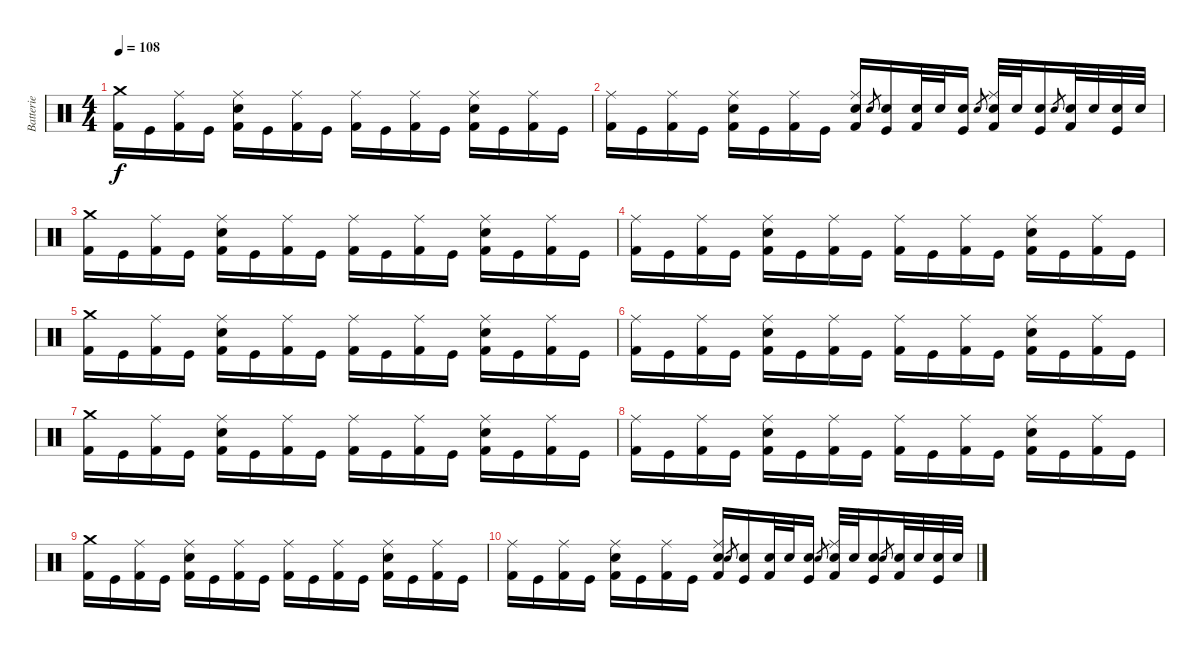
\track ("Batterie" "Batterie") {instrument percussion}
\staff {score}
\articulation defaults
\ts (4 4)
\tempo 108
\clef neutral
\ks c
("Crash medium (hit)" "Kick (hit) 2").16{dy f} "Kick (hit)".16 ("Ride (middle)" "Kick (hit) 2").16 "Kick (hit)".16 ("Ride (middle)" "Snare (hit) 2" "Kick (hit) 2").16 "Kick (hit)".16 ("Ride (middle)" "Kick (hit) 2").16 "Kick (hit)".16 ("Ride (middle)" "Kick (hit) 2").16 "Kick (hit)".16 ("Ride (middle)" "Kick (hit) 2").16 "Kick (hit)".16 ("Ride (middle)" "Snare (hit) 2" "Kick (hit) 2").16 "Kick (hit)".16 ("Ride (middle)" "Kick (hit) 2").16 "Kick (hit)".16 |
("Ride (middle)" "Kick (hit) 2").16 "Kick (hit)".16 ("Ride (middle)" "Kick (hit) 2").16 "Kick (hit)".16 ("Ride (middle)" "Snare (hit) 2" "Kick (hit) 2").16 "Kick (hit)".16 ("Ride (middle)" "Kick (hit) 2").16 "Kick (hit)".16 ("Ride (middle)" "Snare (hit) 2" "Kick (hit) 2").16 "Snare (hit) 2".8{gr} ("Snare (hit) 2" "Kick (hit)").16 ("Snare (hit) 2" "Kick (hit) 2").32 "Snare (hit) 2".32 ("Snare (hit) 2" "Kick (hit)").16 "Snare (hit) 2".8{gr} ("Ride (middle)" "Snare (hit) 2" "Kick (hit) 2").32 "Snare (hit) 2".32 ("Snare (hit) 2" "Kick (hit)").16 "Snare (hit) 2".8{gr} ("Snare (hit) 2" "Kick (hit) 2").32 "Snare (hit) 2".32 ("Snare (hit) 2" "Kick (hit)").32 "Snare (hit) 2".32 |
("Crash medium (hit)" "Kick (hit) 2").16 "Kick (hit)".16 ("Ride (middle)" "Kick (hit) 2").16 "Kick (hit)".16 ("Ride (middle)" "Snare (hit) 2" "Kick (hit) 2").16 "Kick (hit)".16 ("Ride (middle)" "Kick (hit) 2").16 "Kick (hit)".16 ("Ride (middle)" "Kick (hit) 2").16 "Kick (hit)".16 ("Ride (middle)" "Kick (hit) 2").16 "Kick (hit)".16 ("Ride (middle)" "Snare (hit) 2" "Kick (hit) 2").16 "Kick (hit)".16 ("Ride (middle)" "Kick (hit) 2").16 "Kick (hit)".16 |
("Ride (middle)" "Kick (hit) 2").16 "Kick (hit)".16 ("Ride (middle)" "Kick (hit) 2").16 "Kick (hit)".16 ("Ride (middle)" "Snare (hit) 2" "Kick (hit) 2").16 "Kick (hit)".16 ("Ride (middle)" "Kick (hit) 2").16 "Kick (hit)".16 ("Ride (middle)" "Kick (hit) 2").16 "Kick (hit)".16 ("Ride (middle)" "Kick (hit) 2").16 "Kick (hit)".16 ("Ride (middle)" "Snare (hit) 2" "Kick (hit) 2").16 "Kick (hit)".16 ("Ride (middle)" "Kick (hit) 2").16 "Kick (hit)".16 |
("Crash medium (hit)" "Kick (hit) 2").16 "Kick (hit)".16 ("Ride (middle)" "Kick (hit) 2").16 "Kick (hit)".16 ("Ride (middle)" "Snare (hit) 2" "Kick (hit) 2").16 "Kick (hit)".16 ("Ride (middle)" "Kick (hit) 2").16 "Kick (hit)".16 ("Ride (middle)" "Kick (hit) 2").16 "Kick (hit)".16 ("Ride (middle)" "Kick (hit) 2").16 "Kick (hit)".16 ("Ride (middle)" "Snare (hit) 2" "Kick (hit) 2").16 "Kick (hit)".16 ("Ride (middle)" "Kick (hit) 2").16 "Kick (hit)".16 |
("Ride (middle)" "Kick (hit) 2").16 "Kick (hit)".16 ("Ride (middle)" "Kick (hit) 2").16 "Kick (hit)".16 ("Ride (middle)" "Snare (hit) 2" "Kick (hit) 2").16 "Kick (hit)".16 ("Ride (middle)" "Kick (hit) 2").16 "Kick (hit)".16 ("Ride (middle)" "Kick (hit) 2").16 "Kick (hit)".16 ("Ride (middle)" "Kick (hit) 2").16 "Kick (hit)".16 ("Ride (middle)" "Snare (hit) 2" "Kick (hit) 2").16 "Kick (hit)".16 ("Ride (middle)" "Kick (hit) 2").16 "Kick (hit)".16 |
("Crash medium (hit)" "Kick (hit) 2").16{volume 0} "Kick (hit)".16 ("Ride (middle)" "Kick (hit) 2").16 "Kick (hit)".16 ("Ride (middle)" "Snare (hit) 2" "Kick (hit) 2").16 "Kick (hit)".16 ("Ride (middle)" "Kick (hit) 2").16 "Kick (hit)".16 ("Ride (middle)" "Kick (hit) 2").16 "Kick (hit)".16 ("Ride (middle)" "Kick (hit) 2").16 "Kick (hit)".16 ("Ride (middle)" "Snare (hit) 2" "Kick (hit) 2").16 "Kick (hit)".16 ("Ride (middle)" "Kick (hit) 2").16 "Kick (hit)".16 |
("Ride (middle)" "Kick (hit) 2").16 "Kick (hit)".16 ("Ride (middle)" "Kick (hit) 2").16 "Kick (hit)".16 ("Ride (middle)" "Snare (hit) 2" "Kick (hit) 2").16 "Kick (hit)".16 ("Ride (middle)" "Kick (hit) 2").16 "Kick (hit)".16 ("Ride (middle)" "Kick (hit) 2").16 "Kick (hit)".16 ("Ride (middle)" "Kick (hit) 2").16 "Kick (hit)".16 ("Ride (middle)" "Snare (hit) 2" "Kick (hit) 2").16 "Kick (hit)".16 ("Ride (middle)" "Kick (hit) 2").16 "Kick (hit)".16 |
("Crash medium (hit)" "Kick (hit) 2").16 "Kick (hit)".16 ("Ride (middle)" "Kick (hit) 2").16 "Kick (hit)".16 ("Ride (middle)" "Snare (hit) 2" "Kick (hit) 2").16 "Kick (hit)".16 ("Ride (middle)" "Kick (hit) 2").16 "Kick (hit)".16 ("Ride (middle)" "Kick (hit) 2").16 "Kick (hit)".16 ("Ride (middle)" "Kick (hit) 2").16 "Kick (hit)".16 ("Ride (middle)" "Snare (hit) 2" "Kick (hit) 2").16 "Kick (hit)".16 ("Ride (middle)" "Kick (hit) 2").16 "Kick (hit)".16 |
("Ride (middle)" "Kick (hit) 2").16 "Kick (hit)".16 ("Ride (middle)" "Kick (hit) 2").16 "Kick (hit)".16 ("Ride (middle)" "Snare (hit) 2" "Kick (hit) 2").16 "Kick (hit)".16 ("Ride (middle)" "Kick (hit) 2").16 "Kick (hit)".16 ("Ride (middle)" "Snare (hit) 2" "Kick (hit) 2").16 "Snare (hit) 2".8{gr} ("Snare (hit) 2" "Kick (hit)").16 ("Snare (hit) 2" "Kick (hit) 2").32 "Snare (hit) 2".32 ("Snare (hit) 2" "Kick (hit)").16 "Snare (hit) 2".8{gr} ("Ride (middle)" "Snare (hit) 2" "Kick (hit) 2").32 "Snare (hit) 2".32 ("Snare (hit) 2" "Kick (hit)").16 "Snare (hit) 2".8{gr} ("Snare (hit) 2" "Kick (hit) 2").32 "Snare (hit) 2".32 ("Snare (hit) 2" "Kick (hit)").32 "Snare (hit) 2".32
